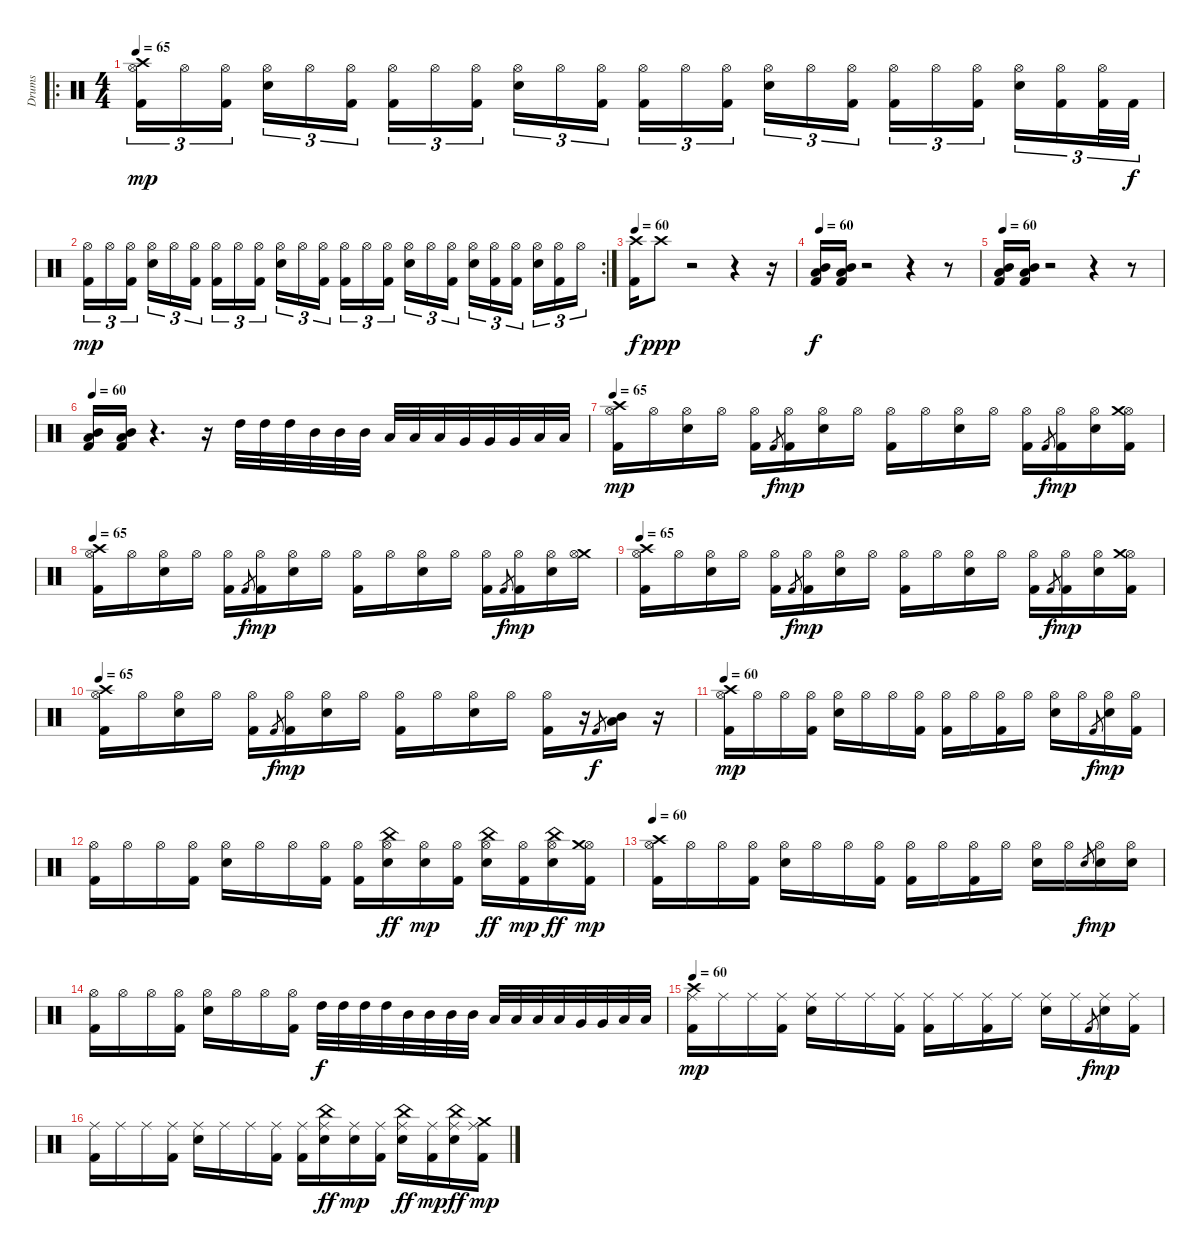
\track ("Drums" "Drums") {instrument percussion}
\staff {score}
\articulation defaults
\ro
\ts (4 4)
\tempo 65
\clef neutral
\ks c
("Hi-Hat (open)" "Crash high (hit)" "Kick (hit) 2").16{tu (3 2) dy mp} "Hi-Hat (open)".16{tu (3 2)} ("Hi-Hat (open)" "Kick (hit) 2").16{tu (3 2)} ("Hi-Hat (open)" "Snare (hit) 2").16{tu (3 2)} "Hi-Hat (open)".16{tu (3 2)} ("Hi-Hat (open)" "Kick (hit) 2").16{tu (3 2)} ("Hi-Hat (open)" "Kick (hit) 2").16{tu (3 2)} "Hi-Hat (open)".16{tu (3 2)} ("Hi-Hat (open)" "Kick (hit) 2").16{tu (3 2)} ("Hi-Hat (open)" "Snare (hit) 2").16{tu (3 2)} "Hi-Hat (open)".16{tu (3 2)} ("Hi-Hat (open)" "Kick (hit) 2").16{tu (3 2)} ("Hi-Hat (open)" "Kick (hit) 2").16{tu (3 2)} "Hi-Hat (open)".16{tu (3 2)} ("Hi-Hat (open)" "Kick (hit) 2").16{tu (3 2)} ("Hi-Hat (open)" "Snare (hit) 2").16{tu (3 2)} "Hi-Hat (open)".16{tu (3 2)} ("Hi-Hat (open)" "Kick (hit) 2").16{tu (3 2)} ("Hi-Hat (open)" "Kick (hit) 2").16{tu (3 2)} "Hi-Hat (open)".16{tu (3 2)} ("Hi-Hat (open)" "Kick (hit) 2").16{tu (3 2)} ("Hi-Hat (open)" "Snare (hit) 2").16{tu (3 2)} ("Hi-Hat (open)" "Kick (hit) 2").16{tu (3 2)} ("Hi-Hat (open)" "Kick (hit) 2").32{tu (3 2)} "Kick (hit) 2".32{tu (3 2) dy f} |
\rc 2
("Hi-Hat (open)" "Kick (hit) 2").16{tu (3 2) dy mp} "Hi-Hat (open)".16{tu (3 2)} ("Hi-Hat (open)" "Kick (hit) 2").16{tu (3 2)} ("Hi-Hat (open)" "Snare (hit) 2").16{tu (3 2)} "Hi-Hat (open)".16{tu (3 2)} ("Hi-Hat (open)" "Kick (hit) 2").16{tu (3 2)} ("Hi-Hat (open)" "Kick (hit) 2").16{tu (3 2)} "Hi-Hat (open)".16{tu (3 2)} ("Hi-Hat (open)" "Kick (hit) 2").16{tu (3 2)} ("Hi-Hat (open)" "Snare (hit) 2").16{tu (3 2)} "Hi-Hat (open)".16{tu (3 2)} ("Hi-Hat (open)" "Kick (hit) 2").16{tu (3 2)} ("Hi-Hat (open)" "Kick (hit) 2").16{tu (3 2)} "Hi-Hat (open)".16{tu (3 2)} ("Hi-Hat (open)" "Kick (hit) 2").16{tu (3 2)} ("Hi-Hat (open)" "Snare (hit) 2").16{tu (3 2)} "Hi-Hat (open)".16{tu (3 2)} ("Hi-Hat (open)" "Kick (hit) 2").16{tu (3 2)} ("Hi-Hat (open)" "Snare (hit) 2").16{tu (3 2)} ("Hi-Hat (open)" "Kick (hit) 2").16{tu (3 2)} ("Hi-Hat (open)" "Kick (hit) 2").16{tu (3 2)} ("Hi-Hat (open)" "Snare (hit) 2").16{tu (3 2)} ("Hi-Hat (open)" "Kick (hit) 2").16{tu (3 2)} "Hi-Hat (open)".16{tu (3 2)} |
\tempo 60
("Crash high (hit)" "Kick (hit) 2").16{dy f} "Crash high (hit)".8{dy ppp} r.2 r.4 r.16 |
\tempo 60
("Mid Tom (hit)" "Low Tom (hit)" "Kick (hit) 2").16{dy f} ("Mid Tom (hit)" "Low Tom (hit)" "Kick (hit) 2").16 r.2 r.4 r.8 |
\tempo 60
("Mid Tom (hit)" "Low Tom (hit)" "Kick (hit) 2").16 ("Mid Tom (hit)" "Low Tom (hit)" "Kick (hit) 2").16 r.2 r.4 r.8 |
\tempo 60
("Mid Tom (hit)" "Low Tom (hit)" "Kick (hit) 2").16 ("Mid Tom (hit)" "Low Tom (hit)" "Kick (hit) 2").16 r.4{d} r.16 "High Tom (hit)".32 "High Tom (hit)".32 "High Tom (hit)".32 "Mid Tom (hit)".32 "Mid Tom (hit)".32 "Mid Tom (hit)".32 "Low Tom (hit)".32 "Low Tom (hit)".32 "Low Tom (hit)".32 "Very Low Tom (hit)".32 "Very Low Tom (hit)".32 "Very Low Tom (hit)".32 "Low Floor Tom (hit)".32 "Low Floor Tom (hit)".32 |
\tempo 60
\tempo 65
("Crash high (hit)" "Hi-Hat (open)" "Kick (hit) 2").16{dy mp} "Hi-Hat (open)".16 ("Hi-Hat (open)" "Snare (hit) 2").16 "Hi-Hat (open)".16 ("Hi-Hat (open)" "Kick (hit) 2").16 "Kick (hit) 2".8{gr dy f} ("Hi-Hat (open)" "Kick (hit) 2").16{dy mp} ("Hi-Hat (open)" "Snare (hit) 2").16 "Hi-Hat (open)".16 ("Hi-Hat (open)" "Kick (hit) 2").16 "Hi-Hat (open)".16 ("Hi-Hat (open)" "Snare (hit) 2").16 "Hi-Hat (open)".16 ("Hi-Hat (open)" "Kick (hit) 2").16 "Kick (hit) 2".8{gr dy f} ("Hi-Hat (open)" "Kick (hit) 2").16{dy mp} ("Hi-Hat (open)" "Snare (hit) 2").16 ("Hi-Hat (open)" "Crash medium (hit)" "Kick (hit) 2").16 |
\tempo 60
\tempo 65
("Crash high (hit)" "Hi-Hat (open)" "Kick (hit) 2").16 "Hi-Hat (open)".16 ("Hi-Hat (open)" "Snare (hit) 2").16 "Hi-Hat (open)".16 ("Hi-Hat (open)" "Kick (hit) 2").16 "Kick (hit) 2".8{gr dy f} ("Hi-Hat (open)" "Kick (hit) 2").16{dy mp} ("Hi-Hat (open)" "Snare (hit) 2").16 "Hi-Hat (open)".16 ("Hi-Hat (open)" "Kick (hit) 2").16 "Hi-Hat (open)".16 ("Hi-Hat (open)" "Snare (hit) 2").16 "Hi-Hat (open)".16 ("Hi-Hat (open)" "Kick (hit) 2").16 "Kick (hit) 2".8{gr dy f} ("Hi-Hat (open)" "Kick (hit) 2").16{dy mp} ("Hi-Hat (open)" "Snare (hit) 2").16 ("Crash medium (hit)" "Hi-Hat (open)").16 |
\tempo 60
\tempo 65
("Crash high (hit)" "Hi-Hat (open)" "Kick (hit) 2").16 "Hi-Hat (open)".16 ("Hi-Hat (open)" "Snare (hit) 2").16 "Hi-Hat (open)".16 ("Hi-Hat (open)" "Kick (hit) 2").16 "Kick (hit) 2".8{gr dy f} ("Hi-Hat (open)" "Kick (hit) 2").16{dy mp} ("Hi-Hat (open)" "Snare (hit) 2").16 "Hi-Hat (open)".16 ("Hi-Hat (open)" "Kick (hit) 2").16 "Hi-Hat (open)".16 ("Hi-Hat (open)" "Snare (hit) 2").16 "Hi-Hat (open)".16 ("Hi-Hat (open)" "Kick (hit) 2").16 "Kick (hit) 2".8{gr dy f} ("Hi-Hat (open)" "Kick (hit) 2").16{dy mp} ("Hi-Hat (open)" "Snare (hit) 2").16 ("Hi-Hat (open)" "Crash medium (hit)" "Kick (hit) 2").16 |
\tempo 60
\tempo 65
("Crash high (hit)" "Hi-Hat (open)" "Kick (hit) 2").16 "Hi-Hat (open)".16 ("Hi-Hat (open)" "Snare (hit) 2").16 "Hi-Hat (open)".16 ("Hi-Hat (open)" "Kick (hit) 2").16 "Kick (hit) 2".8{gr dy f} ("Hi-Hat (open)" "Kick (hit) 2").16{dy mp} ("Hi-Hat (open)" "Snare (hit) 2").16 "Hi-Hat (open)".16 ("Hi-Hat (open)" "Kick (hit) 2").16 "Hi-Hat (open)".16 ("Hi-Hat (open)" "Snare (hit) 2").16 "Hi-Hat (open)".16 ("Hi-Hat (open)" "Kick (hit) 2").16 r.16 "Kick (hit) 2".8{gr dy f} ("Mid Tom (hit)" "Low Tom (hit)").16 r.16 |
\tempo 60
("Crash high (hit)" "Hi-Hat (open)" "Kick (hit) 2").16{dy mp} "Hi-Hat (open)".16 "Hi-Hat (open)".16 ("Hi-Hat (open)" "Kick (hit) 2").16 ("Hi-Hat (open)" "Snare (hit) 2").16 "Hi-Hat (open)".16 "Hi-Hat (open)".16 ("Hi-Hat (open)" "Kick (hit) 2").16 ("Hi-Hat (open)" "Kick (hit) 2").16 "Hi-Hat (open)".16 ("Hi-Hat (open)" "Kick (hit) 2").16 "Hi-Hat (open)".16 ("Hi-Hat (open)" "Snare (hit) 2").16 "Hi-Hat (open)".16 "Kick (hit) 2".8{gr dy f} ("Hi-Hat (open)" "Snare (hit) 2").16{dy mp} ("Hi-Hat (open)" "Kick (hit) 2").16 |
("Hi-Hat (open)" "Kick (hit) 2").16 "Hi-Hat (open)".16 "Hi-Hat (open)".16 ("Hi-Hat (open)" "Kick (hit) 2").16 ("Hi-Hat (open)" "Snare (hit) 2").16 "Hi-Hat (open)".16 "Hi-Hat (open)".16 ("Hi-Hat (open)" "Kick (hit) 2").16 ("Hi-Hat (open)" "Kick (hit) 2").16 ("Hi-Hat (open)" "China (hit)" "Snare (hit) 2").16{dy ff} ("Hi-Hat (open)" "Snare (hit) 2").16{dy mp} ("Hi-Hat (open)" "Kick (hit) 2").16 ("Hi-Hat (open)" "China (hit)" "Snare (hit) 2").16{dy ff} ("Hi-Hat (open)" "Kick (hit) 2").16{dy mp} ("Hi-Hat (open)" "China (hit)" "Snare (hit) 2").16{dy ff} ("Hi-Hat (open)" "Crash medium (hit)" "Kick (hit) 2").16{dy mp} |
\tempo 60
("Crash high (hit)" "Hi-Hat (open)" "Kick (hit) 2").16 "Hi-Hat (open)".16 "Hi-Hat (open)".16 ("Hi-Hat (open)" "Kick (hit) 2").16 ("Hi-Hat (open)" "Snare (hit) 2").16 "Hi-Hat (open)".16 "Hi-Hat (open)".16 ("Hi-Hat (open)" "Kick (hit) 2").16 ("Hi-Hat (open)" "Kick (hit) 2").16 "Hi-Hat (open)".16 ("Hi-Hat (open)" "Kick (hit) 2").16 "Hi-Hat (open)".16 ("Hi-Hat (open)" "Snare (hit) 2").16 "Hi-Hat (open)".16 "Snare (hit) 2".8{gr dy f} ("Hi-Hat (open)" "Snare (hit) 2").16{dy mp} ("Hi-Hat (open)" "Snare (hit) 2").16 |
("Hi-Hat (open)" "Kick (hit) 2").16 "Hi-Hat (open)".16 "Hi-Hat (open)".16 ("Hi-Hat (open)" "Kick (hit) 2").16 ("Hi-Hat (open)" "Snare (hit) 2").16 "Hi-Hat (open)".16 "Hi-Hat (open)".16 ("Hi-Hat (open)" "Kick (hit) 2").16 "High Tom (hit)".32{dy f} "High Tom (hit)".32 "High Tom (hit)".32 "High Tom (hit)".32 "Mid Tom (hit)".32 "Mid Tom (hit)".32 "Mid Tom (hit)".32 "Mid Tom (hit)".32 "Low Tom (hit)".32 "Low Tom (hit)".32 "Low Tom (hit)".32 "Low Tom (hit)".32 "Very Low Tom (hit)".32 "Very Low Tom (hit)".32 "Low Floor Tom (hit)".32 "Low Floor Tom (hit)".32 |
\tempo 60
("Crash high (hit)" "Ride (middle)" "Kick (hit) 2").16{dy mp} "Ride (middle)".16 "Ride (middle)".16 ("Ride (middle)" "Kick (hit) 2").16 ("Ride (middle)" "Snare (hit) 2").16 "Ride (middle)".16 "Ride (middle)".16 ("Ride (middle)" "Kick (hit) 2").16 ("Ride (middle)" "Kick (hit) 2").16 "Ride (middle)".16 ("Ride (middle)" "Kick (hit) 2").16 "Ride (middle)".16 ("Ride (middle)" "Snare (hit) 2").16 "Ride (middle)".16 "Kick (hit) 2".8{gr dy f} ("Ride (middle)" "Snare (hit) 2").16{dy mp} ("Ride (middle)" "Kick (hit) 2").16 |
("Ride (middle)" "Kick (hit) 2").16 "Ride (middle)".16 "Ride (middle)".16 ("Ride (middle)" "Kick (hit) 2").16 ("Ride (middle)" "Snare (hit) 2").16 "Ride (middle)".16 "Ride (middle)".16 ("Ride (middle)" "Kick (hit) 2").16 ("Ride (middle)" "Kick (hit) 2").16 ("Ride (middle)" "China (hit)" "Snare (hit) 2").16{dy ff} ("Ride (middle)" "Snare (hit) 2").16{dy mp} ("Ride (middle)" "Kick (hit) 2").16 ("Ride (middle)" "China (hit)" "Snare (hit) 2").16{dy ff} ("Ride (middle)" "Kick (hit) 2").16{dy mp} ("Ride (middle)" "China (hit)" "Snare (hit) 2").16{dy ff} ("Ride (middle)" "Crash medium (hit)" "Kick (hit) 2").16{dy mp}
